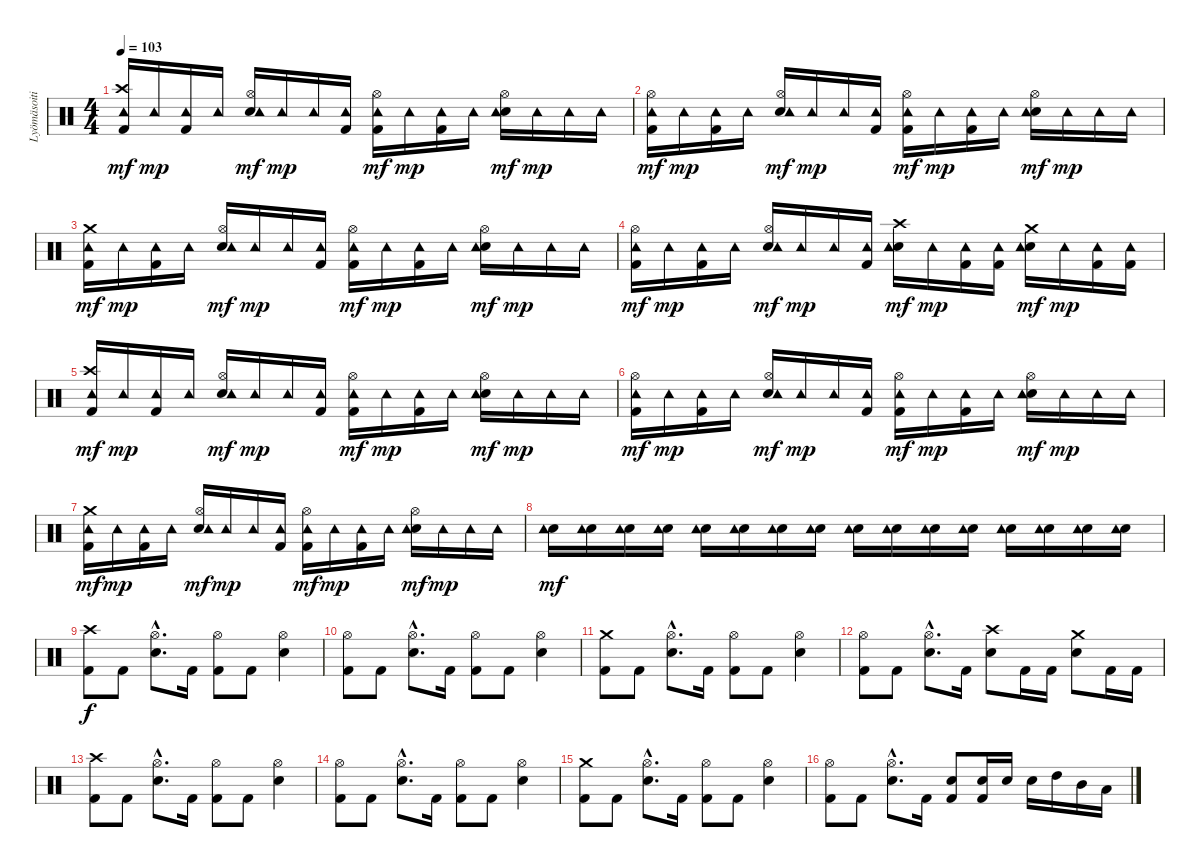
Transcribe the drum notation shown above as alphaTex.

\track ("Lyömäsoitin" "Lyömäsoiti") {instrument percussion}
\staff {score}
\articulation defaults
\ts (4 4)
\tempo 103
\clef neutral
\ks c
("Kick (hit) 2" "Crash high (hit)" "Tambourine (hit)").16{dy mf} "Tambourine (hit)".16{dy mp} ("Kick (hit) 2" "Tambourine (hit)").16 "Tambourine (hit)".16 ("Hi-Hat (open)" "Snare (hit) 2" "Tambourine (hit)").16{dy mf} "Tambourine (hit)".16{dy mp} "Tambourine (hit)".16 ("Kick (hit) 2" "Tambourine (hit)").16 ("Kick (hit) 2" "Hi-Hat (open)" "Tambourine (hit)").16{dy mf} "Tambourine (hit)".16{dy mp} ("Kick (hit) 2" "Tambourine (hit)").16 "Tambourine (hit)".16 ("Hi-Hat (open)" "Snare (hit) 2" "Tambourine (hit)").16{dy mf} "Tambourine (hit)".16{dy mp} "Tambourine (hit)".16 "Tambourine (hit)".16 |
("Kick (hit) 2" "Hi-Hat (open)" "Tambourine (hit)").16{dy mf} "Tambourine (hit)".16{dy mp} ("Kick (hit) 2" "Tambourine (hit)").16 "Tambourine (hit)".16 ("Hi-Hat (open)" "Snare (hit) 2" "Tambourine (hit)").16{dy mf} "Tambourine (hit)".16{dy mp} "Tambourine (hit)".16 ("Kick (hit) 2" "Tambourine (hit)").16 ("Kick (hit) 2" "Hi-Hat (open)" "Tambourine (hit)").16{dy mf} "Tambourine (hit)".16{dy mp} ("Kick (hit) 2" "Tambourine (hit)").16 "Tambourine (hit)".16 ("Hi-Hat (open)" "Snare (hit) 2" "Tambourine (hit)").16{dy mf} "Tambourine (hit)".16{dy mp} "Tambourine (hit)".16 "Tambourine (hit)".16 |
("Kick (hit) 2" "Crash medium (hit)" "Tambourine (hit)").16{dy mf} "Tambourine (hit)".16{dy mp} ("Kick (hit) 2" "Tambourine (hit)").16 "Tambourine (hit)".16 ("Hi-Hat (open)" "Snare (hit) 2" "Tambourine (hit)").16{dy mf} "Tambourine (hit)".16{dy mp} "Tambourine (hit)".16 ("Kick (hit) 2" "Tambourine (hit)").16 ("Kick (hit) 2" "Hi-Hat (open)" "Tambourine (hit)").16{dy mf} "Tambourine (hit)".16{dy mp} ("Kick (hit) 2" "Tambourine (hit)").16 "Tambourine (hit)".16 ("Hi-Hat (open)" "Snare (hit) 2" "Tambourine (hit)").16{dy mf} "Tambourine (hit)".16{dy mp} "Tambourine (hit)".16 "Tambourine (hit)".16 |
("Kick (hit) 2" "Hi-Hat (open)" "Tambourine (hit)").16{dy mf} "Tambourine (hit)".16{dy mp} ("Kick (hit) 2" "Tambourine (hit)").16 "Tambourine (hit)".16 ("Hi-Hat (open)" "Snare (hit) 2" "Tambourine (hit)").16{dy mf} "Tambourine (hit)".16{dy mp} "Tambourine (hit)".16 ("Kick (hit) 2" "Tambourine (hit)").16 ("Crash high (hit)" "Snare (hit) 2" "Tambourine (hit)").16{dy mf} "Tambourine (hit)".16{dy mp} ("Kick (hit) 2" "Tambourine (hit)").16 ("Kick (hit) 2" "Tambourine (hit)").16 ("Crash medium (hit)" "Snare (hit) 2" "Tambourine (hit)").16{dy mf} "Tambourine (hit)".16{dy mp} ("Kick (hit) 2" "Tambourine (hit)").16 ("Kick (hit) 2" "Tambourine (hit)").16 |
("Kick (hit) 2" "Crash high (hit)" "Tambourine (hit)").16{dy mf} "Tambourine (hit)".16{dy mp} ("Kick (hit) 2" "Tambourine (hit)").16 "Tambourine (hit)".16 ("Hi-Hat (open)" "Snare (hit) 2" "Tambourine (hit)").16{dy mf} "Tambourine (hit)".16{dy mp} "Tambourine (hit)".16 ("Kick (hit) 2" "Tambourine (hit)").16 ("Kick (hit) 2" "Hi-Hat (open)" "Tambourine (hit)").16{dy mf} "Tambourine (hit)".16{dy mp} ("Kick (hit) 2" "Tambourine (hit)").16 "Tambourine (hit)".16 ("Hi-Hat (open)" "Snare (hit) 2" "Tambourine (hit)").16{dy mf} "Tambourine (hit)".16{dy mp} "Tambourine (hit)".16 "Tambourine (hit)".16 |
("Kick (hit) 2" "Hi-Hat (open)" "Tambourine (hit)").16{dy mf} "Tambourine (hit)".16{dy mp} ("Kick (hit) 2" "Tambourine (hit)").16 "Tambourine (hit)".16 ("Hi-Hat (open)" "Snare (hit) 2" "Tambourine (hit)").16{dy mf} "Tambourine (hit)".16{dy mp} "Tambourine (hit)".16 ("Kick (hit) 2" "Tambourine (hit)").16 ("Kick (hit) 2" "Hi-Hat (open)" "Tambourine (hit)").16{dy mf} "Tambourine (hit)".16{dy mp} ("Kick (hit) 2" "Tambourine (hit)").16 "Tambourine (hit)".16 ("Hi-Hat (open)" "Snare (hit) 2" "Tambourine (hit)").16{dy mf} "Tambourine (hit)".16{dy mp} "Tambourine (hit)".16 "Tambourine (hit)".16 |
("Kick (hit) 2" "Crash medium (hit)" "Tambourine (hit)").16{dy mf} "Tambourine (hit)".16{dy mp} ("Kick (hit) 2" "Tambourine (hit)").16 "Tambourine (hit)".16 ("Hi-Hat (open)" "Snare (hit) 2" "Tambourine (hit)").16{dy mf} "Tambourine (hit)".16{dy mp} "Tambourine (hit)".16 ("Kick (hit) 2" "Tambourine (hit)").16 ("Kick (hit) 2" "Hi-Hat (open)" "Tambourine (hit)").16{dy mf} "Tambourine (hit)".16{dy mp} ("Kick (hit) 2" "Tambourine (hit)").16 "Tambourine (hit)".16 ("Hi-Hat (open)" "Snare (hit) 2" "Tambourine (hit)").16{dy mf} "Tambourine (hit)".16{dy mp} "Tambourine (hit)".16 "Tambourine (hit)".16 |
("Snare (hit) 2" "Tambourine (hit)").16{dy mf} ("Snare (hit) 2" "Tambourine (hit)").16 ("Snare (hit) 2" "Tambourine (hit)").16 ("Snare (hit) 2" "Tambourine (hit)").16 ("Snare (hit) 2" "Tambourine (hit)").16 ("Snare (hit) 2" "Tambourine (hit)").16 ("Snare (hit) 2" "Tambourine (hit)").16 ("Snare (hit) 2" "Tambourine (hit)").16 ("Snare (hit) 2" "Tambourine (hit)").16 ("Snare (hit) 2" "Tambourine (hit)").16 ("Snare (hit) 2" "Tambourine (hit)").16 ("Snare (hit) 2" "Tambourine (hit)").16 ("Snare (hit) 2" "Tambourine (hit)").16 ("Snare (hit) 2" "Tambourine (hit)").16 ("Snare (hit) 2" "Tambourine (hit)").16 ("Snare (hit) 2" "Tambourine (hit)").16 |
("Kick (hit) 2" "Crash high (hit)").8{dy f} "Kick (hit) 2".8 ("Hi-Hat (open)"{hac} "Snare (hit) 2"{hac}).8{d} "Kick (hit) 2".16 ("Kick (hit) 2" "Hi-Hat (open)").8 "Kick (hit) 2".8 ("Hi-Hat (open)" "Snare (hit) 2").4 |
("Kick (hit) 2" "Hi-Hat (open)").8 "Kick (hit) 2".8 ("Hi-Hat (open)"{hac} "Snare (hit) 2"{hac}).8{d} "Kick (hit) 2".16 ("Kick (hit) 2" "Hi-Hat (open)").8 "Kick (hit) 2".8 ("Hi-Hat (open)" "Snare (hit) 2").4 |
("Kick (hit) 2" "Crash medium (hit)").8 "Kick (hit) 2".8 ("Hi-Hat (open)"{hac} "Snare (hit) 2"{hac}).8{d} "Kick (hit) 2".16 ("Kick (hit) 2" "Hi-Hat (open)").8 "Kick (hit) 2".8 ("Hi-Hat (open)" "Snare (hit) 2").4 |
("Kick (hit) 2" "Hi-Hat (open)").8 "Kick (hit) 2".8 ("Hi-Hat (open)"{hac} "Snare (hit) 2"{hac}).8{d} "Kick (hit) 2".16 ("Crash high (hit)" "Snare (hit) 2").8 "Kick (hit) 2".16 "Kick (hit) 2".16 ("Crash medium (hit)" "Snare (hit) 2").8 "Kick (hit) 2".16 "Kick (hit) 2".16 |
("Kick (hit) 2" "Crash high (hit)").8 "Kick (hit) 2".8 ("Hi-Hat (open)"{hac} "Snare (hit) 2"{hac}).8{d} "Kick (hit) 2".16 ("Kick (hit) 2" "Hi-Hat (open)").8 "Kick (hit) 2".8 ("Hi-Hat (open)" "Snare (hit) 2").4 |
("Kick (hit) 2" "Hi-Hat (open)").8 "Kick (hit) 2".8 ("Hi-Hat (open)"{hac} "Snare (hit) 2"{hac}).8{d} "Kick (hit) 2".16 ("Kick (hit) 2" "Hi-Hat (open)").8 "Kick (hit) 2".8 ("Hi-Hat (open)" "Snare (hit) 2").4 |
("Kick (hit) 2" "Crash medium (hit)").8 "Kick (hit) 2".8 ("Hi-Hat (open)"{hac} "Snare (hit) 2"{hac}).8{d} "Kick (hit) 2".16 ("Kick (hit) 2" "Hi-Hat (open)").8 "Kick (hit) 2".8 ("Hi-Hat (open)" "Snare (hit) 2").4 |
("Kick (hit) 2" "Hi-Hat (open)").8 "Kick (hit) 2".8 ("Hi-Hat (open)"{hac} "Snare (hit) 2"{hac}).8{d} "Kick (hit) 2".16 ("Kick (hit) 2" "Snare (hit) 2").8 ("Kick (hit) 2" "Snare (hit) 2").16 "Snare (hit) 2".16 "Snare (hit) 2".16 "High Tom (hit)".16 "Mid Tom (hit)".16 "Low Tom (hit)".16
